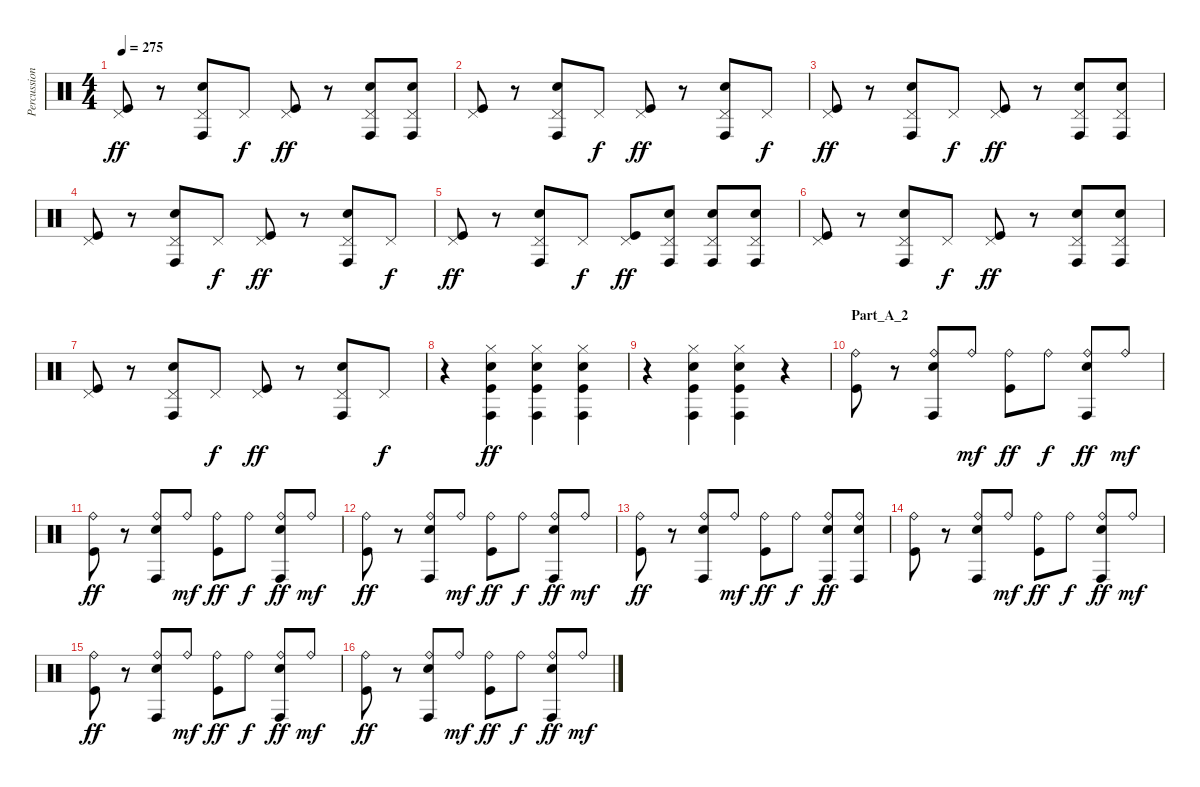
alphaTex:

\track ("Percussion" "Percussion") {instrument percussion}
\staff {score}
\articulation defaults
\ts (4 4)
\tempo 275
\clef neutral
\ks c
("Pedal Hi-Hat (hit)" "Kick (hit)").8{dy ff} r.8 ("Pedal Hi-Hat (hit)" "Conga high (hit)" "Electric Snare (hit)").8 "Pedal Hi-Hat (hit)".8{dy f} ("Pedal Hi-Hat (hit)" "Kick (hit)").8{dy ff} r.8 ("Pedal Hi-Hat (hit)" "Conga high (hit)" "Electric Snare (hit)").8 ("Pedal Hi-Hat (hit)" "Conga high (hit)" "Electric Snare (hit)").8 |
("Pedal Hi-Hat (hit)" "Kick (hit)").8 r.8 ("Pedal Hi-Hat (hit)" "Conga high (hit)" "Electric Snare (hit)").8 "Pedal Hi-Hat (hit)".8{dy f} ("Pedal Hi-Hat (hit)" "Kick (hit)").8{dy ff} r.8 ("Pedal Hi-Hat (hit)" "Conga high (hit)" "Electric Snare (hit)").8 "Pedal Hi-Hat (hit)".8{dy f} |
("Pedal Hi-Hat (hit)" "Kick (hit)").8{dy ff} r.8 ("Pedal Hi-Hat (hit)" "Conga high (hit)" "Electric Snare (hit)").8 "Pedal Hi-Hat (hit)".8{dy f} ("Pedal Hi-Hat (hit)" "Kick (hit)").8{dy ff} r.8 ("Pedal Hi-Hat (hit)" "Conga high (hit)" "Electric Snare (hit)").8 ("Pedal Hi-Hat (hit)" "Conga high (hit)" "Electric Snare (hit)").8 |
("Pedal Hi-Hat (hit)" "Kick (hit)").8 r.8 ("Pedal Hi-Hat (hit)" "Conga high (hit)" "Electric Snare (hit)").8 "Pedal Hi-Hat (hit)".8{dy f} ("Pedal Hi-Hat (hit)" "Kick (hit)").8{dy ff} r.8 ("Pedal Hi-Hat (hit)" "Conga high (hit)" "Electric Snare (hit)").8 "Pedal Hi-Hat (hit)".8{dy f} |
("Pedal Hi-Hat (hit)" "Kick (hit)").8{dy ff} r.8 ("Pedal Hi-Hat (hit)" "Conga high (hit)" "Electric Snare (hit)").8 "Pedal Hi-Hat (hit)".8{dy f} ("Pedal Hi-Hat (hit)" "Kick (hit)").8{dy ff} ("Pedal Hi-Hat (hit)" "Conga high (hit)" "Electric Snare (hit)").8 ("Pedal Hi-Hat (hit)" "Conga high (hit)" "Electric Snare (hit)").8 ("Pedal Hi-Hat (hit)" "Conga high (hit)" "Electric Snare (hit)").8 |
("Pedal Hi-Hat (hit)" "Kick (hit)").8 r.8 ("Pedal Hi-Hat (hit)" "Conga high (hit)" "Electric Snare (hit)").8 "Pedal Hi-Hat (hit)".8{dy f} ("Pedal Hi-Hat (hit)" "Kick (hit)").8{dy ff} r.8 ("Pedal Hi-Hat (hit)" "Conga high (hit)" "Electric Snare (hit)").8 ("Pedal Hi-Hat (hit)" "Conga high (hit)" "Electric Snare (hit)").8 |
("Pedal Hi-Hat (hit)" "Kick (hit)").8 r.8 ("Pedal Hi-Hat (hit)" "Conga high (hit)" "Electric Snare (hit)").8 "Pedal Hi-Hat (hit)".8{dy f} ("Pedal Hi-Hat (hit)" "Kick (hit)").8{dy ff} r.8 ("Pedal Hi-Hat (hit)" "Conga high (hit)" "Electric Snare (hit)").8 "Pedal Hi-Hat (hit)".8{dy f} |
r.4 ("Hi-Hat (closed)" "Conga high (hit)" "Electric Snare (hit)" "Kick (hit)").4{dy ff} ("Hi-Hat (closed)" "Conga high (hit)" "Electric Snare (hit)" "Kick (hit)").4 ("Hi-Hat (closed)" "Conga high (hit)" "Electric Snare (hit)" "Kick (hit)").4 |
r.4 ("Hi-Hat (closed)" "Conga high (hit)" "Electric Snare (hit)" "Kick (hit)").4 ("Hi-Hat (closed)" "Conga high (hit)" "Electric Snare (hit)" "Kick (hit)").4 r.4 |
\section ("" "Part_A_2")
("Ride (bell)" "Kick (hit)").8 r.8 ("Ride (bell)" "Conga high (hit)" "Electric Snare (hit)").8 "Ride (bell)".8{dy mf} ("Ride (bell)" "Kick (hit)").8{dy ff} "Ride (bell)".8{dy f} ("Ride (bell)" "Conga high (hit)" "Electric Snare (hit)").8{dy ff} "Ride (bell)".8{dy mf} |
("Ride (bell)" "Kick (hit)").8{dy ff} r.8 ("Ride (bell)" "Conga high (hit)" "Electric Snare (hit)").8 "Ride (bell)".8{dy mf} ("Ride (bell)" "Kick (hit)").8{dy ff} "Ride (bell)".8{dy f} ("Ride (bell)" "Conga high (hit)" "Electric Snare (hit)").8{dy ff} "Ride (bell)".8{dy mf} |
("Ride (bell)" "Kick (hit)").8{dy ff} r.8 ("Ride (bell)" "Conga high (hit)" "Electric Snare (hit)").8 "Ride (bell)".8{dy mf} ("Ride (bell)" "Kick (hit)").8{dy ff} "Ride (bell)".8{dy f} ("Ride (bell)" "Conga high (hit)" "Electric Snare (hit)").8{dy ff} "Ride (bell)".8{dy mf} |
("Ride (bell)" "Kick (hit)").8{dy ff} r.8 ("Ride (bell)" "Conga high (hit)" "Electric Snare (hit)").8 "Ride (bell)".8{dy mf} ("Ride (bell)" "Kick (hit)").8{dy ff} "Ride (bell)".8{dy f} ("Ride (bell)" "Conga high (hit)" "Electric Snare (hit)").8{dy ff} ("Ride (bell)" "Conga high (hit)" "Electric Snare (hit)").8 |
("Ride (bell)" "Kick (hit)").8 r.8 ("Ride (bell)" "Conga high (hit)" "Electric Snare (hit)").8 "Ride (bell)".8{dy mf} ("Ride (bell)" "Kick (hit)").8{dy ff} "Ride (bell)".8{dy f} ("Ride (bell)" "Conga high (hit)" "Electric Snare (hit)").8{dy ff} "Ride (bell)".8{dy mf} |
("Ride (bell)" "Kick (hit)").8{dy ff} r.8 ("Ride (bell)" "Conga high (hit)" "Electric Snare (hit)").8 "Ride (bell)".8{dy mf} ("Ride (bell)" "Kick (hit)").8{dy ff} "Ride (bell)".8{dy f} ("Ride (bell)" "Conga high (hit)" "Electric Snare (hit)").8{dy ff} "Ride (bell)".8{dy mf} |
("Ride (bell)" "Kick (hit)").8{dy ff} r.8 ("Ride (bell)" "Conga high (hit)" "Electric Snare (hit)").8 "Ride (bell)".8{dy mf} ("Ride (bell)" "Kick (hit)").8{dy ff} "Ride (bell)".8{dy f} ("Ride (bell)" "Conga high (hit)" "Electric Snare (hit)").8{dy ff} "Ride (bell)".8{dy mf}
